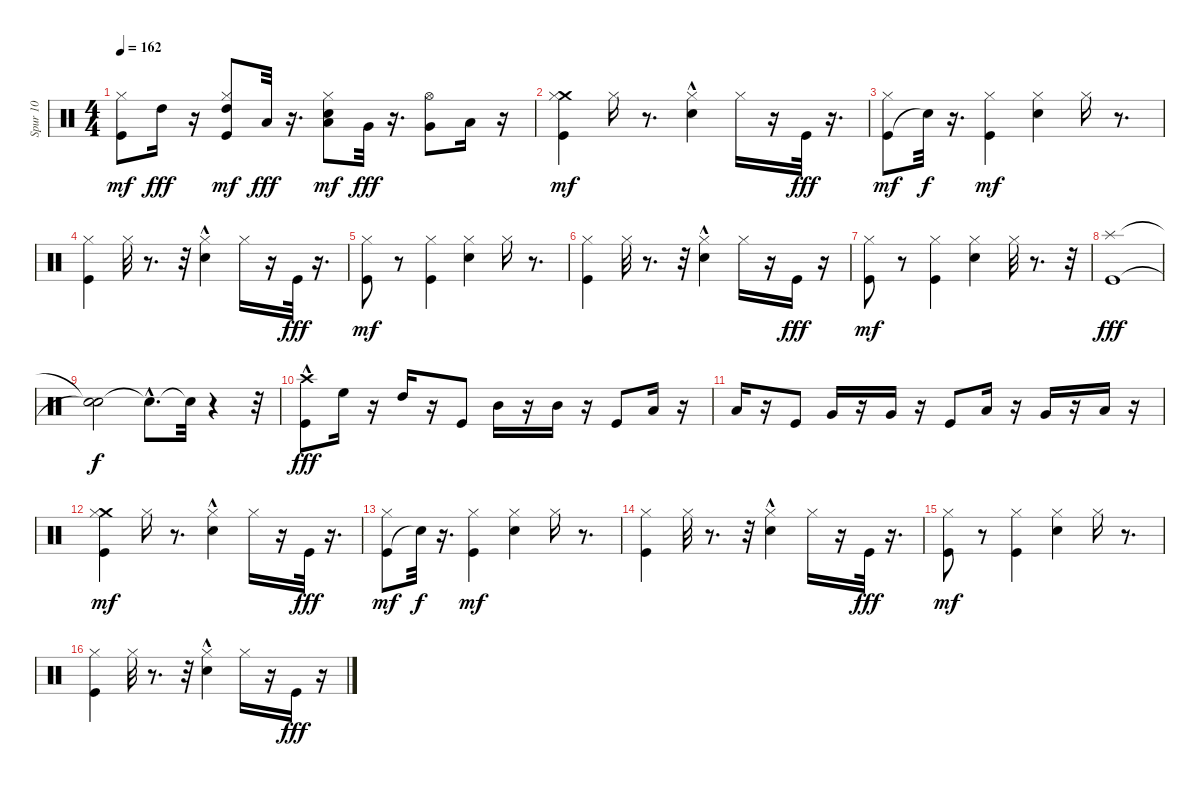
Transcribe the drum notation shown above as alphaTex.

\track ("Spur 10" "Spur 10") {instrument percussion}
\staff {score}
\articulation defaults
\ts (4 4)
\tempo 162
\clef neutral
\ks c
("Kick (hit)" "Hi-Hat (closed)").8{dy mf} "High Tom (hit)".16{dy fff} r.16 ("High Tom (hit)" "Kick (hit)" "Hi-Hat (closed)").8{dy mf} "Low Tom (hit)".32{dy fff} r.16{d} ("Low Tom (hit)" "Snare (hit) 2" "Hi-Hat (closed)").8{dy mf} "Very Low Tom (hit)".32{dy fff} r.16{d} ("Very Low Tom (hit)" "Hi-Hat (open)").8 "Low Floor Tom (hit)".16 r.16 |
("Kick (hit)" "Crash medium (hit)" "Hi-Hat (closed)").4{dy mf} "Hi-Hat (closed)".16 r.8{d} ("Snare (hit) 2"{hac} "Hi-Hat (closed)").4 "Hi-Hat (closed)".16 r.16 "Kick (hit)".32{dy fff} r.16{d} |
("Kick (hit)" "Hi-Hat (closed)").8{dy mf} "Snare (hit)"{t}.32{dy f} r.16{d} ("Kick (hit)" "Hi-Hat (closed)").4{dy mf} ("Snare (hit) 2" "Hi-Hat (closed)").4 "Hi-Hat (closed)".16 r.8{d} |
("Kick (hit)" "Hi-Hat (closed)").4 "Hi-Hat (closed)".32 r.8{d} r.32 ("Snare (hit) 2"{hac} "Hi-Hat (closed)").4 "Hi-Hat (closed)".16 r.16 "Kick (hit)".32{dy fff} r.16{d} |
("Kick (hit)" "Hi-Hat (closed)").8{dy mf} r.8 ("Kick (hit)" "Hi-Hat (closed)").4 ("Snare (hit) 2" "Hi-Hat (closed)").4 "Hi-Hat (closed)".16 r.8{d} |
("Kick (hit)" "Hi-Hat (closed)").4 "Hi-Hat (closed)".32 r.8{d} r.32 ("Snare (hit) 2"{hac} "Hi-Hat (closed)").4 "Hi-Hat (closed)".16 r.16 "Kick (hit)".16{dy fff} r.16 |
("Kick (hit)" "Hi-Hat (closed)").8{dy mf} r.8 ("Kick (hit)" "Hi-Hat (closed)").4 ("Snare (hit) 2" "Hi-Hat (closed)").4 "Hi-Hat (closed)".32 r.8{d} r.32 |
("Kick (hit)" "Splash (hit)").1{dy fff} |
("Snare (hit)"{t} "Snare (hit)"{t}).2{dy f} "Snare (hit)"{hac t}.8{d} "Snare (hit)"{t}.32 r.4 r.32 |
("Kick (hit)"{hac} "Crash high (hit)"{hac}).8{dy fff} "High Floor Tom (hit)".16 r.16 "High Tom (hit)".16 r.16 "Kick (hit)".8 "Mid Tom (hit)".16 r.16 "Mid Tom (hit)".16 r.16 "Kick (hit)".8 "Low Tom (hit)".16 r.16 |
"Low Tom (hit)".16 r.16 "Kick (hit)".8 "Very Low Tom (hit)".16 r.16 "Very Low Tom (hit)".16 r.16 "Kick (hit)".8 "Low Tom (hit)".16 r.16 "Very Low Tom (hit)".16 r.16 "Low Floor Tom (hit)".16 r.16 |
("Kick (hit)" "Crash medium (hit)" "Hi-Hat (closed)").4{dy mf} "Hi-Hat (closed)".16 r.8{d} ("Snare (hit) 2"{hac} "Hi-Hat (closed)").4 "Hi-Hat (closed)".16 r.16 "Kick (hit)".32{dy fff} r.16{d} |
("Kick (hit)" "Hi-Hat (closed)").8{dy mf} "Snare (hit)"{t}.32{dy f} r.16{d} ("Kick (hit)" "Hi-Hat (closed)").4{dy mf} ("Snare (hit) 2" "Hi-Hat (closed)").4 "Hi-Hat (closed)".16 r.8{d} |
("Kick (hit)" "Hi-Hat (closed)").4 "Hi-Hat (closed)".32 r.8{d} r.32 ("Snare (hit) 2"{hac} "Hi-Hat (closed)").4 "Hi-Hat (closed)".16 r.16 "Kick (hit)".32{dy fff} r.16{d} |
("Kick (hit)" "Hi-Hat (closed)").8{dy mf} r.8 ("Kick (hit)" "Hi-Hat (closed)").4 ("Snare (hit) 2" "Hi-Hat (closed)").4 "Hi-Hat (closed)".16 r.8{d} |
("Kick (hit)" "Hi-Hat (closed)").4 "Hi-Hat (closed)".32 r.8{d} r.32 ("Snare (hit) 2"{hac} "Hi-Hat (closed)").4 "Hi-Hat (closed)".16 r.16 "Kick (hit)".16{dy fff} r.16
